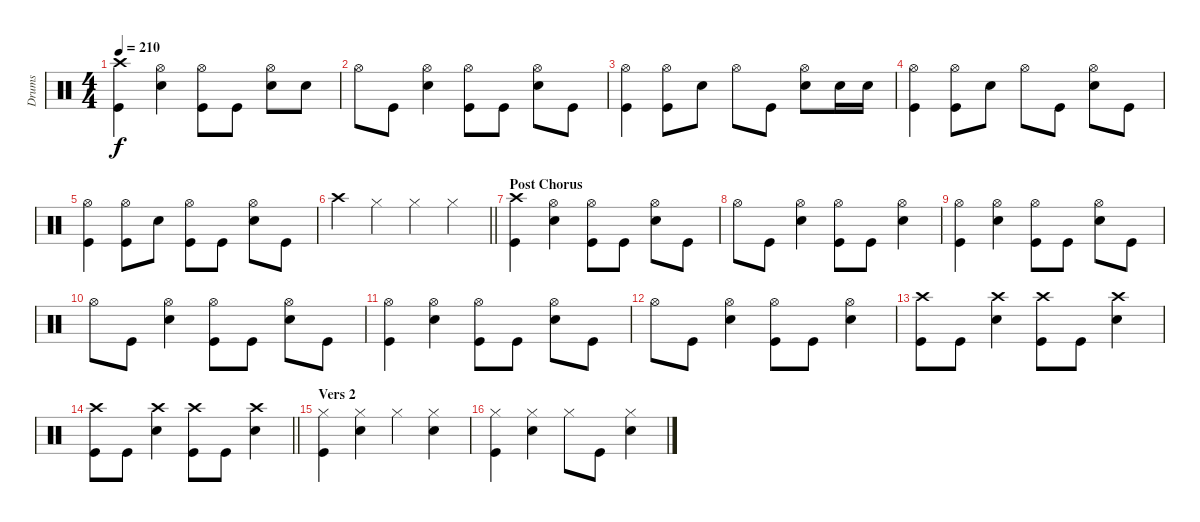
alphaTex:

\track ("Drums" "Drums") {instrument percussion}
\staff {score}
\articulation defaults
\ts (4 4)
\tempo 210
\clef neutral
\ks c
("Crash high (hit)" "Kick (hit)").4{dy f} ("Hi-Hat (open)" "Snare (hit) 2").4 ("Hi-Hat (open)" "Kick (hit)").8 "Kick (hit)".8 ("Hi-Hat (open)" "Snare (hit) 2").8 "Snare (hit) 2".8 |
"Hi-Hat (open)".8 "Kick (hit)".8 ("Hi-Hat (open)" "Snare (hit) 2").4 ("Hi-Hat (open)" "Kick (hit)").8 "Kick (hit)".8 ("Hi-Hat (open)" "Snare (hit) 2").8 "Kick (hit)".8 |
("Hi-Hat (open)" "Kick (hit)").4 ("Hi-Hat (open)" "Kick (hit)").8 "Snare (hit) 2".8 "Hi-Hat (open)".8 "Kick (hit)".8 ("Hi-Hat (open)" "Snare (hit) 2").8 "Snare (hit) 2".16 "Snare (hit) 2".16 |
("Hi-Hat (open)" "Kick (hit)").4 ("Hi-Hat (open)" "Kick (hit)").8 "Snare (hit) 2".8 "Hi-Hat (open)".8 "Kick (hit)".8 ("Hi-Hat (open)" "Snare (hit) 2").8 "Kick (hit)".8 |
("Hi-Hat (open)" "Kick (hit)").4 ("Hi-Hat (open)" "Kick (hit)").8 "Snare (hit) 2".8 ("Hi-Hat (open)" "Kick (hit)").8 "Kick (hit)".8 ("Hi-Hat (open)" "Snare (hit) 2").8 "Kick (hit)".8 |
\barLineRight lightlight "Crash high (hit)".4 "Hi-Hat (closed)".4 "Hi-Hat (closed)".4 "Hi-Hat (closed)".4
|
\section ("" "Post Chorus")
("Crash high (hit)" "Kick (hit)").4 ("Hi-Hat (open)" "Snare (hit) 2").4 ("Hi-Hat (open)" "Kick (hit)").8 "Kick (hit)".8 ("Hi-Hat (open)" "Snare (hit) 2").8 "Kick (hit)".8 |
"Hi-Hat (open)".8 "Kick (hit)".8 ("Hi-Hat (open)" "Snare (hit) 2").4 ("Hi-Hat (open)" "Kick (hit)").8 "Kick (hit)".8 ("Hi-Hat (open)" "Snare (hit) 2").4 |
("Hi-Hat (open)" "Kick (hit)").4 ("Hi-Hat (open)" "Snare (hit) 2").4 ("Hi-Hat (open)" "Kick (hit)").8 "Kick (hit)".8 ("Hi-Hat (open)" "Snare (hit) 2").8 "Kick (hit)".8 |
"Hi-Hat (open)".8 "Kick (hit)".8 ("Hi-Hat (open)" "Snare (hit) 2").4 ("Hi-Hat (open)" "Kick (hit)").8 "Kick (hit)".8 ("Hi-Hat (open)" "Snare (hit) 2").8 "Kick (hit)".8 |
("Hi-Hat (open)" "Kick (hit)").4 ("Hi-Hat (open)" "Snare (hit) 2").4 ("Hi-Hat (open)" "Kick (hit)").8 "Kick (hit)".8 ("Hi-Hat (open)" "Snare (hit) 2").8 "Kick (hit)".8 |
"Hi-Hat (open)".8 "Kick (hit)".8 ("Hi-Hat (open)" "Snare (hit) 2").4 ("Hi-Hat (open)" "Kick (hit)").8 "Kick (hit)".8 ("Hi-Hat (open)" "Snare (hit) 2").4 |
("Crash high (hit)" "Kick (hit)").8 "Kick (hit)".8 ("Crash high (hit)" "Snare (hit) 2").4 ("Crash high (hit)" "Kick (hit)").8 "Kick (hit)".8 ("Crash high (hit)" "Snare (hit) 2").4 |
\barLineRight lightlight
("Crash high (hit)" "Kick (hit)").8 "Kick (hit)".8 ("Crash high (hit)" "Snare (hit) 2").4 ("Crash high (hit)" "Kick (hit)").8 "Kick (hit)".8 ("Crash high (hit)" "Snare (hit) 2").4 |
\section ("" "Vers 2")
("Hi-Hat (closed)" "Kick (hit)").4 ("Hi-Hat (closed)" "Snare (hit) 2").4 "Hi-Hat (closed)".4 ("Hi-Hat (closed)" "Snare (hit) 2").4 |
("Hi-Hat (closed)" "Kick (hit)").4 ("Hi-Hat (closed)" "Snare (hit) 2").4 "Hi-Hat (closed)".8 "Kick (hit)".8 ("Hi-Hat (closed)" "Snare (hit) 2").4
